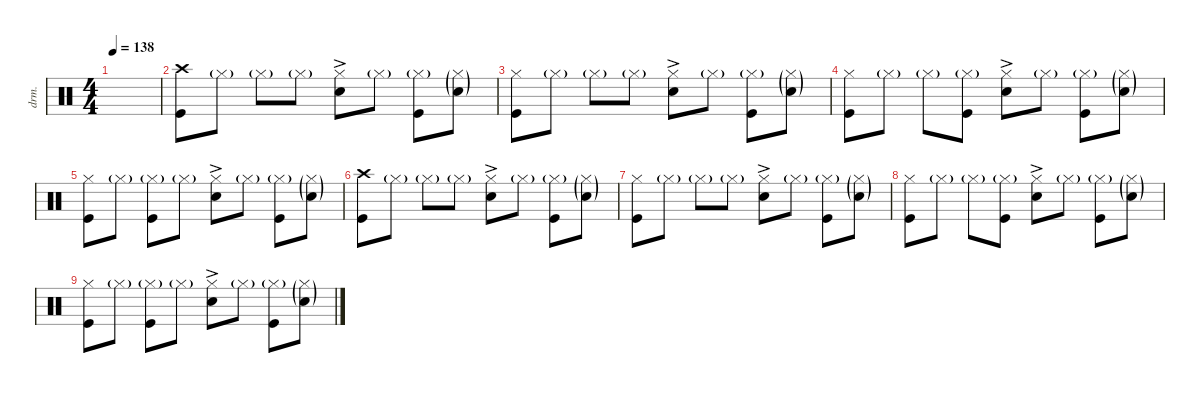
\defaultSystemsLayout 4
\hideDynamics
\bracketExtendMode nobrackets
\track ("Drumkit" "drm.") {instrument percussion}
\staff {score}
\articulation defaults
\ts (4 4)
\tempo 138
\clef neutral
\ks c
|
("Kick (hit)" "Crash high (hit)").8{beam Down} "Hi-Hat (closed)"{g}.8{beam Down} "Hi-Hat (closed)"{g}.8{beam Down} "Hi-Hat (closed)"{g}.8{beam Down} ("Snare (hit) 2"{ac} "Hi-Hat (closed)").8{beam Down} "Hi-Hat (closed)"{g}.8{beam Down} ("Kick (hit)" "Hi-Hat (closed)"{g}).8{beam Down} ("Snare (hit) 2"{g} "Hi-Hat (closed)"{g}).8{beam Down} |
("Hi-Hat (closed)" "Kick (hit)").8{beam Down} "Hi-Hat (closed)"{g}.8{beam Down} "Hi-Hat (closed)"{g}.8{beam Down} "Hi-Hat (closed)"{g}.8{beam Down} ("Snare (hit) 2"{ac} "Hi-Hat (closed)").8{beam Down} "Hi-Hat (closed)"{g}.8{beam Down} ("Kick (hit)" "Hi-Hat (closed)"{g}).8{beam Down} ("Snare (hit) 2"{g} "Hi-Hat (closed)"{g}).8{beam Down} |
("Kick (hit)" "Hi-Hat (closed)").8{beam Down} "Hi-Hat (closed)"{g}.8{beam Down} "Hi-Hat (closed)"{g}.8{beam Down} ("Hi-Hat (closed)"{g} "Kick (hit)").8{beam Down} ("Snare (hit) 2"{ac} "Hi-Hat (closed)").8{beam Down} "Hi-Hat (closed)"{g}.8{beam Down} ("Kick (hit)" "Hi-Hat (closed)"{g}).8{beam Down} ("Snare (hit) 2"{g} "Hi-Hat (closed)"{g}).8{beam Down} |
("Hi-Hat (closed)" "Kick (hit)").8{beam Down} "Hi-Hat (closed)"{g}.8{beam Down} ("Hi-Hat (closed)"{g} "Kick (hit)").8{beam Down} "Hi-Hat (closed)"{g}.8{beam Down} ("Snare (hit) 2"{ac} "Hi-Hat (closed)").8{beam Down} "Hi-Hat (closed)"{g}.8{beam Down} ("Kick (hit)" "Hi-Hat (closed)"{g}).8{beam Down} ("Snare (hit) 2"{g} "Hi-Hat (closed)"{g}).8{beam Down} |
("Kick (hit)" "Crash high (hit)").8{beam Down} "Hi-Hat (closed)"{g}.8{beam Down} "Hi-Hat (closed)"{g}.8{beam Down} "Hi-Hat (closed)"{g}.8{beam Down} ("Snare (hit) 2"{ac} "Hi-Hat (closed)").8{beam Down} "Hi-Hat (closed)"{g}.8{beam Down} ("Kick (hit)" "Hi-Hat (closed)"{g}).8{beam Down} ("Snare (hit) 2"{g} "Hi-Hat (closed)"{g}).8{beam Down} |
("Hi-Hat (closed)" "Kick (hit)").8{beam Down} "Hi-Hat (closed)"{g}.8{beam Down} "Hi-Hat (closed)"{g}.8{beam Down} "Hi-Hat (closed)"{g}.8{beam Down} ("Snare (hit) 2"{ac} "Hi-Hat (closed)").8{beam Down} "Hi-Hat (closed)"{g}.8{beam Down} ("Kick (hit)" "Hi-Hat (closed)"{g}).8{beam Down} ("Snare (hit) 2"{g} "Hi-Hat (closed)"{g}).8{beam Down} |
("Kick (hit)" "Hi-Hat (closed)").8{beam Down} "Hi-Hat (closed)"{g}.8{beam Down} "Hi-Hat (closed)"{g}.8{beam Down} ("Hi-Hat (closed)"{g} "Kick (hit)").8{beam Down} ("Snare (hit) 2"{ac} "Hi-Hat (closed)").8{beam Down} "Hi-Hat (closed)"{g}.8{beam Down} ("Kick (hit)" "Hi-Hat (closed)"{g}).8{beam Down} ("Snare (hit) 2"{g} "Hi-Hat (closed)"{g}).8{beam Down} |
("Hi-Hat (closed)" "Kick (hit)").8{beam Down} "Hi-Hat (closed)"{g}.8{beam Down} ("Hi-Hat (closed)"{g} "Kick (hit)").8{beam Down} "Hi-Hat (closed)"{g}.8{beam Down} ("Snare (hit) 2"{ac} "Hi-Hat (closed)").8{beam Down} "Hi-Hat (closed)"{g}.8{beam Down} ("Kick (hit)" "Hi-Hat (closed)"{g}).8{beam Down} ("Snare (hit) 2"{g} "Hi-Hat (closed)"{g}).8{beam Down}
